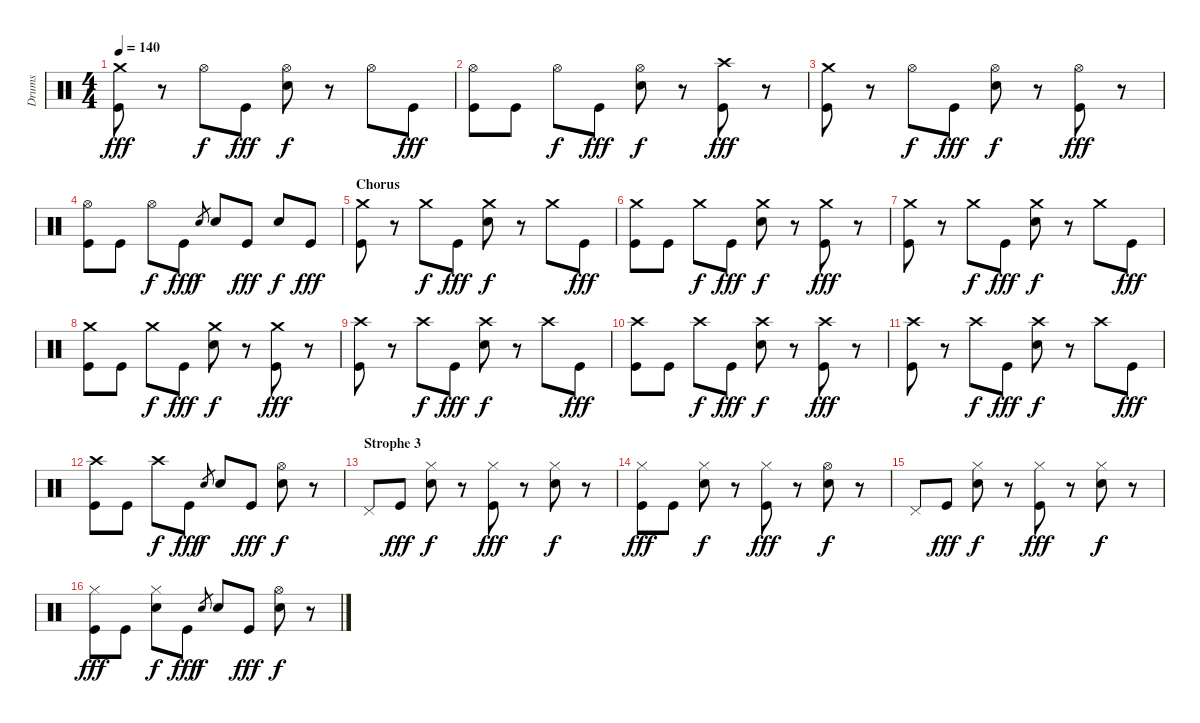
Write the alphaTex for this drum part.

\track ("Drums" "Drums") {instrument percussion}
\staff {score}
\articulation defaults
\ts (4 4)
\tempo 140
\clef neutral
\ks c
("Crash medium (hit)" "Kick (hit)").8{dy fff} r.8 "Hi-Hat (open)".8{dy f} "Kick (hit)".8{dy fff} ("Hi-Hat (open)" "Electric Snare (hit)").8{dy f} r.8 "Hi-Hat (open)".8 "Kick (hit)".8{dy fff} |
("Hi-Hat (open)" "Kick (hit)").8 "Kick (hit)".8 "Hi-Hat (open)".8{dy f} "Kick (hit)".8{dy fff} ("Hi-Hat (open)" "Electric Snare (hit)").8{dy f} r.8 ("Crash high (hit)" "Kick (hit)").8{dy fff} r.8 |
("Crash medium (hit)" "Kick (hit)").8 r.8 "Hi-Hat (open)".8{dy f} "Kick (hit)".8{dy fff} ("Hi-Hat (open)" "Electric Snare (hit)").8{dy f} r.8 ("Hi-Hat (open)" "Kick (hit)").8{dy fff} r.8 |
("Hi-Hat (open)" "Kick (hit)").8 "Kick (hit)".8 "Hi-Hat (open)".8{dy f} "Kick (hit)".8{dy fff} "Electric Snare (hit)".8{gr dy f} "Electric Snare (hit)".8 "Kick (hit)".8{dy fff} "Electric Snare (hit)".8{dy f} "Kick (hit)".8{dy fff} |
\section ("" "Chorus")
("Crash medium (hit)" "Kick (hit)").8 r.8 "Crash medium (hit)".8{dy f} "Kick (hit)".8{dy fff} ("Crash medium (hit)" "Electric Snare (hit)").8{dy f} r.8 "Crash medium (hit)".8 "Kick (hit)".8{dy fff} |
("Crash medium (hit)" "Kick (hit)").8 "Kick (hit)".8 "Crash medium (hit)".8{dy f} "Kick (hit)".8{dy fff} ("Crash medium (hit)" "Electric Snare (hit)").8{dy f} r.8 ("Crash medium (hit)" "Kick (hit)").8{dy fff} r.8 |
("Crash medium (hit)" "Kick (hit)").8 r.8 "Crash medium (hit)".8{dy f} "Kick (hit)".8{dy fff} ("Crash medium (hit)" "Electric Snare (hit)").8{dy f} r.8 "Crash medium (hit)".8 "Kick (hit)".8{dy fff} |
("Crash medium (hit)" "Kick (hit)").8 "Kick (hit)".8 "Crash medium (hit)".8{dy f} "Kick (hit)".8{dy fff} ("Crash medium (hit)" "Electric Snare (hit)").8{dy f} r.8 ("Crash medium (hit)" "Kick (hit)").8{dy fff} r.8 |
("Crash high (hit)" "Kick (hit)").8 r.8 "Crash high (hit)".8{dy f} "Kick (hit)".8{dy fff} ("Crash high (hit)" "Electric Snare (hit)").8{dy f} r.8 "Crash high (hit)".8 "Kick (hit)".8{dy fff} |
("Crash high (hit)" "Kick (hit)").8 "Kick (hit)".8 "Crash high (hit)".8{dy f} "Kick (hit)".8{dy fff} ("Crash high (hit)" "Electric Snare (hit)").8{dy f} r.8 ("Crash high (hit)" "Kick (hit)").8{dy fff} r.8 |
("Crash high (hit)" "Kick (hit)").8 r.8 "Crash high (hit)".8{dy f} "Kick (hit)".8{dy fff} ("Crash high (hit)" "Electric Snare (hit)").8{dy f} r.8 "Crash high (hit)".8 "Kick (hit)".8{dy fff} |
("Crash high (hit)" "Kick (hit)").8 "Kick (hit)".8 "Crash high (hit)".8{dy f} "Kick (hit)".8{dy fff} "Electric Snare (hit)".8{gr dy f} "Electric Snare (hit)".8 "Kick (hit)".8{dy fff} ("Hi-Hat (open)" "Electric Snare (hit)").8{dy f} r.8 |
\section ("" "Strophe 3")
"Pedal Hi-Hat (hit)".8 "Kick (hit)".8{dy fff} ("Hi-Hat (closed)" "Electric Snare (hit)").8{dy f} r.8 ("Hi-Hat (closed)" "Kick (hit)").8{dy fff} r.8 ("Hi-Hat (closed)" "Electric Snare (hit)").8{dy f} r.8 |
("Hi-Hat (closed)" "Kick (hit)").8{dy fff} "Kick (hit)".8 ("Hi-Hat (closed)" "Electric Snare (hit)").8{dy f} r.8 ("Hi-Hat (closed)" "Kick (hit)").8{dy fff} r.8 ("Hi-Hat (open)" "Electric Snare (hit)").8{dy f} r.8 |
"Pedal Hi-Hat (hit)".8 "Kick (hit)".8{dy fff} ("Hi-Hat (closed)" "Electric Snare (hit)").8{dy f} r.8 ("Hi-Hat (closed)" "Kick (hit)").8{dy fff} r.8 ("Hi-Hat (closed)" "Electric Snare (hit)").8{dy f} r.8 |
("Hi-Hat (closed)" "Kick (hit)").8{dy fff} "Kick (hit)".8 ("Hi-Hat (closed)" "Electric Snare (hit)").8{dy f} "Kick (hit)".8{dy fff} "Electric Snare (hit)".8{gr dy f} "Electric Snare (hit)".8 "Kick (hit)".8{dy fff} ("Hi-Hat (open)" "Electric Snare (hit)").8{dy f} r.8
